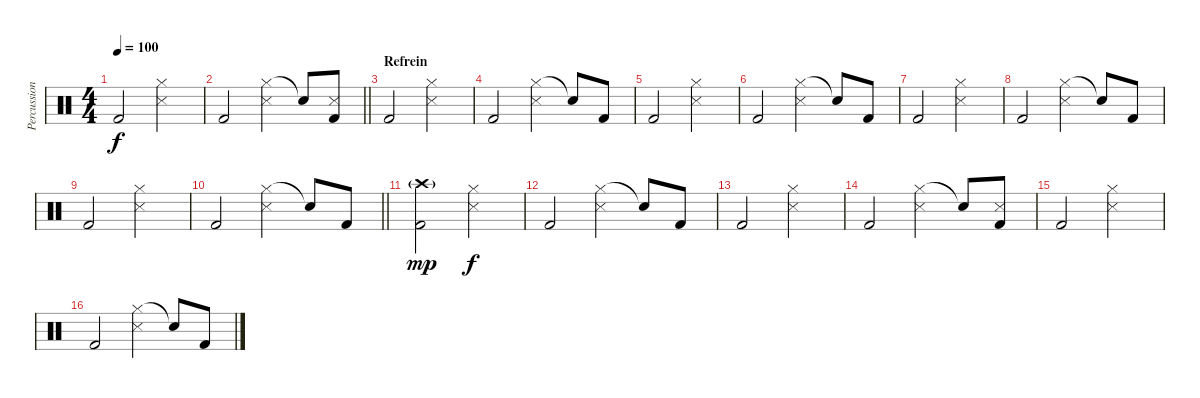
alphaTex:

\track ("Percussion" "Percussion") {instrument percussion}
\staff {score}
\articulation defaults
\ts (4 4)
\tempo 100
\clef neutral
\ks c "Kick (hit) 2".2{dy f}
("Hi-Hat (closed)" "Snare (side stick) 3").2 |
\barLineRight lightlight "Kick (hit) 2".2
("Hi-Hat (closed)" "Snare (side stick) 3").4 "Snare (hit)"{t}.8 ("Snare (side stick) 3" "Kick (hit) 2").8 |
\section ("" "Refrein")
"Kick (hit) 2".2 ("Hi-Hat (closed)" "Snare (side stick) 3").2 |
"Kick (hit) 2".2 ("Hi-Hat (closed)" "Snare (side stick) 3").4 "Snare (hit)"{t}.8 "Kick (hit) 2".8 |
"Kick (hit) 2".2 ("Hi-Hat (closed)" "Snare (side stick) 3").2 |
"Kick (hit) 2".2 ("Hi-Hat (closed)" "Snare (side stick) 3").4 "Snare (hit)"{t}.8 "Kick (hit) 2".8 |
"Kick (hit) 2".2 ("Hi-Hat (closed)" "Snare (side stick) 3").2 |
"Kick (hit) 2".2 ("Hi-Hat (closed)" "Snare (side stick) 3").4 "Snare (hit)"{t}.8 "Kick (hit) 2".8 |
"Kick (hit) 2".2 ("Hi-Hat (closed)" "Snare (side stick) 3").2 |
\barLineRight lightlight "Kick (hit) 2".2
("Hi-Hat (closed)" "Snare (side stick) 3").4 "Snare (hit)"{t}.8 "Kick (hit) 2".8 |
("Crash high (hit)"{g} "Kick (hit) 2").2{dy mp} ("Hi-Hat (closed)" "Snare (side stick) 3").2{dy f} |
"Kick (hit) 2".2 ("Hi-Hat (closed)" "Snare (side stick) 3").4 "Snare (hit)"{t}.8 "Kick (hit) 2".8 |
"Kick (hit) 2".2 ("Hi-Hat (closed)" "Snare (side stick) 3").2 |
"Kick (hit) 2".2 ("Hi-Hat (closed)" "Snare (side stick) 3").4 "Snare (hit)"{t}.8 ("Snare (side stick) 3" "Kick (hit) 2").8 |
"Kick (hit) 2".2 ("Hi-Hat (closed)" "Snare (side stick) 3").2 |
"Kick (hit) 2".2 ("Hi-Hat (closed)" "Snare (side stick) 3").4 "Snare (hit)"{t}.8 "Kick (hit) 2".8
